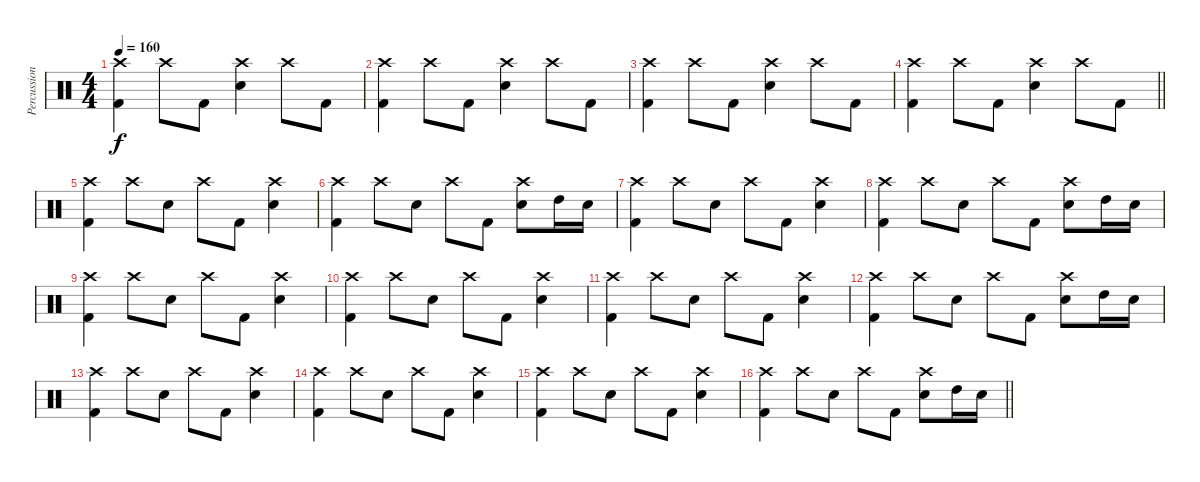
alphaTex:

\track ("Percussion" "Percussion") {instrument percussion}
\staff {score}
\articulation defaults
\ts (4 4)
\tempo 160
\clef neutral
\ks c
("Kick (hit) 2" "Crash high (hit)").4{dy f} "Crash high (hit)".8 "Kick (hit) 2".8 ("Snare (hit) 2" "Crash high (hit)").4 "Crash high (hit)".8 "Kick (hit) 2".8 |
("Kick (hit) 2" "Crash high (hit)").4 "Crash high (hit)".8 "Kick (hit) 2".8 ("Snare (hit) 2" "Crash high (hit)").4 "Crash high (hit)".8 "Kick (hit) 2".8 |
("Kick (hit) 2" "Crash high (hit)").4 "Crash high (hit)".8 "Kick (hit) 2".8 ("Snare (hit) 2" "Crash high (hit)").4 "Crash high (hit)".8 "Kick (hit) 2".8 |
\barLineRight lightlight
("Kick (hit) 2" "Crash high (hit)").4 "Crash high (hit)".8 "Kick (hit) 2".8 ("Snare (hit) 2" "Crash high (hit)").4 "Crash high (hit)".8 "Kick (hit) 2".8 |
("Kick (hit) 2" "Crash high (hit)").4 "Crash high (hit)".8 "Snare (hit) 2".8 "Crash high (hit)".8 "Kick (hit) 2".8 ("Snare (hit) 2" "Crash high (hit)").4 |
("Kick (hit) 2" "Crash high (hit)").4 "Crash high (hit)".8 "Snare (hit) 2".8 "Crash high (hit)".8 "Kick (hit) 2".8 ("Snare (hit) 2" "Crash high (hit)").8 "High Tom (hit)".16 "Snare (hit) 2".16 |
("Kick (hit) 2" "Crash high (hit)").4 "Crash high (hit)".8 "Snare (hit) 2".8 "Crash high (hit)".8 "Kick (hit) 2".8 ("Snare (hit) 2" "Crash high (hit)").4 |
("Kick (hit) 2" "Crash high (hit)").4 "Crash high (hit)".8 "Snare (hit) 2".8 "Crash high (hit)".8 "Kick (hit) 2".8 ("Snare (hit) 2" "Crash high (hit)").8 "High Tom (hit)".16 "Snare (hit) 2".16 |
("Kick (hit) 2" "Crash high (hit)").4 "Crash high (hit)".8 "Snare (hit) 2".8 "Crash high (hit)".8 "Kick (hit) 2".8 ("Snare (hit) 2" "Crash high (hit)").4 |
("Kick (hit) 2" "Crash high (hit)").4 "Crash high (hit)".8 "Snare (hit) 2".8 "Crash high (hit)".8 "Kick (hit) 2".8 ("Snare (hit) 2" "Crash high (hit)").4 |
("Kick (hit) 2" "Crash high (hit)").4 "Crash high (hit)".8 "Snare (hit) 2".8 "Crash high (hit)".8 "Kick (hit) 2".8 ("Snare (hit) 2" "Crash high (hit)").4 |
("Kick (hit) 2" "Crash high (hit)").4 "Crash high (hit)".8 "Snare (hit) 2".8 "Crash high (hit)".8 "Kick (hit) 2".8 ("Snare (hit) 2" "Crash high (hit)").8 "High Tom (hit)".16 "Snare (hit) 2".16 |
("Kick (hit) 2" "Crash high (hit)").4 "Crash high (hit)".8 "Snare (hit) 2".8 "Crash high (hit)".8 "Kick (hit) 2".8 ("Snare (hit) 2" "Crash high (hit)").4 |
("Kick (hit) 2" "Crash high (hit)").4 "Crash high (hit)".8 "Snare (hit) 2".8 "Crash high (hit)".8 "Kick (hit) 2".8 ("Snare (hit) 2" "Crash high (hit)").4 |
("Kick (hit) 2" "Crash high (hit)").4 "Crash high (hit)".8 "Snare (hit) 2".8 "Crash high (hit)".8 "Kick (hit) 2".8 ("Snare (hit) 2" "Crash high (hit)").4 |
\barLineRight lightlight
("Kick (hit) 2" "Crash high (hit)").4 "Crash high (hit)".8 "Snare (hit) 2".8 "Crash high (hit)".8 "Kick (hit) 2".8 ("Snare (hit) 2" "Crash high (hit)").8 "High Tom (hit)".16 "Snare (hit) 2".16
